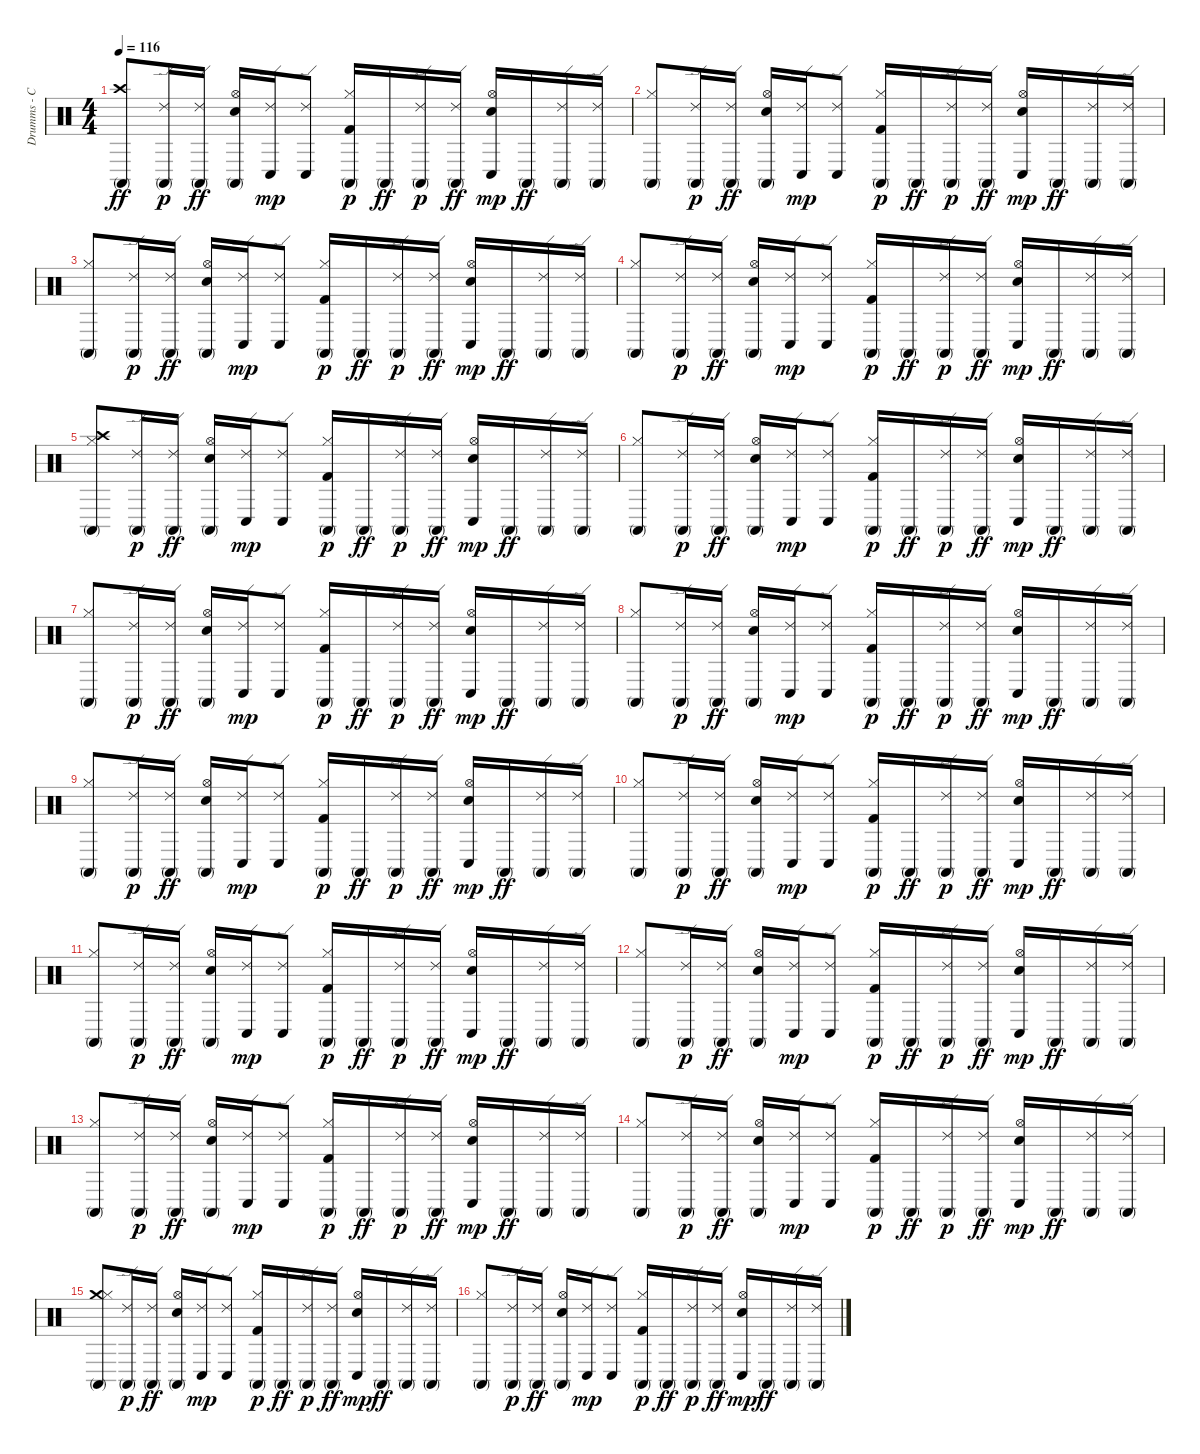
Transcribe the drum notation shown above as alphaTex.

\track ("Drumms - Conga" "Drumms - C") {instrument percussion}
\staff {score}
\articulation defaults
\ts (4 4)
\tempo 116
\clef neutral
\ks c
("Conga high (mute)" "Crash high (hit)").8{dy ff} ("Conga high (mute)" "Ride (edge) 2").16{dy p} ("Conga high (mute)" "Ride (edge) 2").16{dy ff} ("Conga high (mute)" "Snare (hit) 2" "Hi-Hat (open)").16 ("Conga low (hit)" "Ride (edge) 2").16{dy mp} ("Conga low (hit)" "Ride (edge) 2").8 ("Conga high (mute)" "Kick (hit) 2" "Hi-Hat (closed)").16{dy p} "Conga high (mute)".16{dy ff} ("Conga high (mute)" "Ride (edge) 2").16{dy p} ("Conga high (mute)" "Ride (edge) 2").16{dy ff} ("Conga low (hit)" "Snare (hit) 2" "Hi-Hat (open)").16{dy mp} "Conga high (mute)".16{dy ff} ("Conga high (mute)" "Ride (edge) 2").16 ("Conga high (mute)" "Ride (edge) 2").16 |
("Conga high (mute)" "Hi-Hat (closed)").8 ("Conga high (mute)" "Ride (edge) 2").16{dy p} ("Conga high (mute)" "Ride (edge) 2").16{dy ff} ("Conga high (mute)" "Snare (hit) 2" "Hi-Hat (open)").16 ("Conga low (hit)" "Ride (edge) 2").16{dy mp} ("Conga low (hit)" "Ride (edge) 2").8 ("Conga high (mute)" "Kick (hit) 2" "Hi-Hat (closed)").16{dy p} "Conga high (mute)".16{dy ff} ("Conga high (mute)" "Ride (edge) 2").16{dy p} ("Conga high (mute)" "Ride (edge) 2").16{dy ff} ("Conga low (hit)" "Snare (hit) 2" "Hi-Hat (open)").16{dy mp} "Conga high (mute)".16{dy ff} ("Conga high (mute)" "Ride (edge) 2").16 ("Conga high (mute)" "Ride (edge) 2").16 |
("Conga high (mute)" "Hi-Hat (closed)").8 ("Conga high (mute)" "Ride (edge) 2").16{dy p} ("Conga high (mute)" "Ride (edge) 2").16{dy ff} ("Conga high (mute)" "Snare (hit) 2" "Hi-Hat (open)").16 ("Conga low (hit)" "Ride (edge) 2").16{dy mp} ("Conga low (hit)" "Ride (edge) 2").8 ("Conga high (mute)" "Kick (hit) 2" "Hi-Hat (closed)").16{dy p} "Conga high (mute)".16{dy ff} ("Conga high (mute)" "Ride (edge) 2").16{dy p} ("Conga high (mute)" "Ride (edge) 2").16{dy ff} ("Conga low (hit)" "Snare (hit) 2" "Hi-Hat (open)").16{dy mp} "Conga high (mute)".16{dy ff} ("Conga high (mute)" "Ride (edge) 2").16 ("Conga high (mute)" "Ride (edge) 2").16 |
("Conga high (mute)" "Hi-Hat (closed)").8 ("Conga high (mute)" "Ride (edge) 2").16{dy p} ("Conga high (mute)" "Ride (edge) 2").16{dy ff} ("Conga high (mute)" "Snare (hit) 2" "Hi-Hat (open)").16 ("Conga low (hit)" "Ride (edge) 2").16{dy mp} ("Conga low (hit)" "Ride (edge) 2").8 ("Conga high (mute)" "Kick (hit) 2" "Hi-Hat (closed)").16{dy p} "Conga high (mute)".16{dy ff} ("Conga high (mute)" "Ride (edge) 2").16{dy p} ("Conga high (mute)" "Ride (edge) 2").16{dy ff} ("Conga low (hit)" "Snare (hit) 2" "Hi-Hat (open)").16{dy mp} "Conga high (mute)".16{dy ff} ("Conga high (mute)" "Ride (edge) 2").16 ("Conga high (mute)" "Ride (edge) 2").16 |
\section ("" "")
("Conga high (mute)" "Crash high (hit)" "Hi-Hat (closed)").8 ("Conga high (mute)" "Ride (edge) 2").16{dy p} ("Conga high (mute)" "Ride (edge) 2").16{dy ff} ("Conga high (mute)" "Snare (hit) 2" "Hi-Hat (open)").16 ("Conga low (hit)" "Ride (edge) 2").16{dy mp} ("Conga low (hit)" "Ride (edge) 2").8 ("Conga high (mute)" "Kick (hit) 2" "Hi-Hat (closed)").16{dy p} "Conga high (mute)".16{dy ff} ("Conga high (mute)" "Ride (edge) 2").16{dy p} ("Conga high (mute)" "Ride (edge) 2").16{dy ff} ("Conga low (hit)" "Snare (hit) 2" "Hi-Hat (open)").16{dy mp} "Conga high (mute)".16{dy ff} ("Conga high (mute)" "Ride (edge) 2").16 ("Conga high (mute)" "Ride (edge) 2").16 |
("Conga high (mute)" "Hi-Hat (closed)").8 ("Conga high (mute)" "Ride (edge) 2").16{dy p} ("Conga high (mute)" "Ride (edge) 2").16{dy ff} ("Conga high (mute)" "Snare (hit) 2" "Hi-Hat (open)").16 ("Conga low (hit)" "Ride (edge) 2").16{dy mp} ("Conga low (hit)" "Ride (edge) 2").8 ("Conga high (mute)" "Kick (hit) 2" "Hi-Hat (closed)").16{dy p} "Conga high (mute)".16{dy ff} ("Conga high (mute)" "Ride (edge) 2").16{dy p} ("Conga high (mute)" "Ride (edge) 2").16{dy ff} ("Conga low (hit)" "Snare (hit) 2" "Hi-Hat (open)").16{dy mp} "Conga high (mute)".16{dy ff} ("Conga high (mute)" "Ride (edge) 2").16 ("Conga high (mute)" "Ride (edge) 2").16 |
\section ("" "")
("Conga high (mute)" "Hi-Hat (closed)").8 ("Conga high (mute)" "Ride (edge) 2").16{dy p} ("Conga high (mute)" "Ride (edge) 2").16{dy ff} ("Conga high (mute)" "Snare (hit) 2" "Hi-Hat (open)").16 ("Conga low (hit)" "Ride (edge) 2").16{dy mp} ("Conga low (hit)" "Ride (edge) 2").8 ("Conga high (mute)" "Kick (hit) 2" "Hi-Hat (closed)").16{dy p} "Conga high (mute)".16{dy ff} ("Conga high (mute)" "Ride (edge) 2").16{dy p} ("Conga high (mute)" "Ride (edge) 2").16{dy ff} ("Conga low (hit)" "Snare (hit) 2" "Hi-Hat (open)").16{dy mp} "Conga high (mute)".16{dy ff} ("Conga high (mute)" "Ride (edge) 2").16 ("Conga high (mute)" "Ride (edge) 2").16 |
("Conga high (mute)" "Hi-Hat (closed)").8 ("Conga high (mute)" "Ride (edge) 2").16{dy p} ("Conga high (mute)" "Ride (edge) 2").16{dy ff} ("Conga high (mute)" "Snare (hit) 2" "Hi-Hat (open)").16 ("Conga low (hit)" "Ride (edge) 2").16{dy mp} ("Conga low (hit)" "Ride (edge) 2").8 ("Conga high (mute)" "Kick (hit) 2" "Hi-Hat (closed)").16{dy p} "Conga high (mute)".16{dy ff} ("Conga high (mute)" "Ride (edge) 2").16{dy p} ("Conga high (mute)" "Ride (edge) 2").16{dy ff} ("Conga low (hit)" "Snare (hit) 2" "Hi-Hat (open)").16{dy mp} "Conga high (mute)".16{dy ff} ("Conga high (mute)" "Ride (edge) 2").16 ("Conga high (mute)" "Ride (edge) 2").16 |
("Conga high (mute)" "Hi-Hat (closed)").8 ("Conga high (mute)" "Ride (edge) 2").16{dy p} ("Conga high (mute)" "Ride (edge) 2").16{dy ff} ("Conga high (mute)" "Snare (hit) 2" "Hi-Hat (open)").16 ("Conga low (hit)" "Ride (edge) 2").16{dy mp} ("Conga low (hit)" "Ride (edge) 2").8 ("Conga high (mute)" "Kick (hit) 2" "Hi-Hat (closed)").16{dy p} "Conga high (mute)".16{dy ff} ("Conga high (mute)" "Ride (edge) 2").16{dy p} ("Conga high (mute)" "Ride (edge) 2").16{dy ff} ("Conga low (hit)" "Snare (hit) 2" "Hi-Hat (open)").16{dy mp} "Conga high (mute)".16{dy ff} ("Conga high (mute)" "Ride (edge) 2").16 ("Conga high (mute)" "Ride (edge) 2").16 |
("Conga high (mute)" "Hi-Hat (closed)").8 ("Conga high (mute)" "Ride (edge) 2").16{dy p} ("Conga high (mute)" "Ride (edge) 2").16{dy ff} ("Conga high (mute)" "Snare (hit) 2" "Hi-Hat (open)").16 ("Conga low (hit)" "Ride (edge) 2").16{dy mp} ("Conga low (hit)" "Ride (edge) 2").8 ("Conga high (mute)" "Kick (hit) 2" "Hi-Hat (closed)").16{dy p} "Conga high (mute)".16{dy ff} ("Conga high (mute)" "Ride (edge) 2").16{dy p} ("Conga high (mute)" "Ride (edge) 2").16{dy ff} ("Conga low (hit)" "Snare (hit) 2" "Hi-Hat (open)").16{dy mp} "Conga high (mute)".16{dy ff} ("Conga high (mute)" "Ride (edge) 2").16 ("Conga high (mute)" "Ride (edge) 2").16 |
("Conga high (mute)" "Hi-Hat (closed)").8 ("Conga high (mute)" "Ride (edge) 2").16{dy p} ("Conga high (mute)" "Ride (edge) 2").16{dy ff} ("Conga high (mute)" "Snare (hit) 2" "Hi-Hat (open)").16 ("Conga low (hit)" "Ride (edge) 2").16{dy mp} ("Conga low (hit)" "Ride (edge) 2").8 ("Conga high (mute)" "Kick (hit) 2" "Hi-Hat (closed)").16{dy p} "Conga high (mute)".16{dy ff} ("Conga high (mute)" "Ride (edge) 2").16{dy p} ("Conga high (mute)" "Ride (edge) 2").16{dy ff} ("Conga low (hit)" "Snare (hit) 2" "Hi-Hat (open)").16{dy mp} "Conga high (mute)".16{dy ff} ("Conga high (mute)" "Ride (edge) 2").16 ("Conga high (mute)" "Ride (edge) 2").16 |
("Conga high (mute)" "Hi-Hat (closed)").8 ("Conga high (mute)" "Ride (edge) 2").16{dy p} ("Conga high (mute)" "Ride (edge) 2").16{dy ff} ("Conga high (mute)" "Snare (hit) 2" "Hi-Hat (open)").16 ("Conga low (hit)" "Ride (edge) 2").16{dy mp} ("Conga low (hit)" "Ride (edge) 2").8 ("Conga high (mute)" "Kick (hit) 2" "Hi-Hat (closed)").16{dy p} "Conga high (mute)".16{dy ff} ("Conga high (mute)" "Ride (edge) 2").16{dy p} ("Conga high (mute)" "Ride (edge) 2").16{dy ff} ("Conga low (hit)" "Snare (hit) 2" "Hi-Hat (open)").16{dy mp} "Conga high (mute)".16{dy ff} ("Conga high (mute)" "Ride (edge) 2").16 ("Conga high (mute)" "Ride (edge) 2").16 |
("Conga high (mute)" "Hi-Hat (closed)").8 ("Conga high (mute)" "Ride (edge) 2").16{dy p} ("Conga high (mute)" "Ride (edge) 2").16{dy ff} ("Conga high (mute)" "Snare (hit) 2" "Hi-Hat (open)").16 ("Conga low (hit)" "Ride (edge) 2").16{dy mp} ("Conga low (hit)" "Ride (edge) 2").8 ("Conga high (mute)" "Kick (hit) 2" "Hi-Hat (closed)").16{dy p} "Conga high (mute)".16{dy ff} ("Conga high (mute)" "Ride (edge) 2").16{dy p} ("Conga high (mute)" "Ride (edge) 2").16{dy ff} ("Conga low (hit)" "Snare (hit) 2" "Hi-Hat (open)").16{dy mp} "Conga high (mute)".16{dy ff} ("Conga high (mute)" "Ride (edge) 2").16 ("Conga high (mute)" "Ride (edge) 2").16 |
("Conga high (mute)" "Hi-Hat (closed)").8 ("Conga high (mute)" "Ride (edge) 2").16{dy p} ("Conga high (mute)" "Ride (edge) 2").16{dy ff} ("Conga high (mute)" "Snare (hit) 2" "Hi-Hat (open)").16 ("Conga low (hit)" "Ride (edge) 2").16{dy mp} ("Conga low (hit)" "Ride (edge) 2").8 ("Conga high (mute)" "Kick (hit) 2" "Hi-Hat (closed)").16{dy p} "Conga high (mute)".16{dy ff} ("Conga high (mute)" "Ride (edge) 2").16{dy p} ("Conga high (mute)" "Ride (edge) 2").16{dy ff} ("Conga low (hit)" "Snare (hit) 2" "Hi-Hat (open)").16{dy mp} "Conga high (mute)".16{dy ff} ("Conga high (mute)" "Ride (edge) 2").16 ("Conga high (mute)" "Ride (edge) 2").16 |
\section ("" "")
("Conga high (mute)" "Crash medium (hit)" "Hi-Hat (closed)").8 ("Conga high (mute)" "Ride (edge) 2").16{dy p} ("Conga high (mute)" "Ride (edge) 2").16{dy ff} ("Conga high (mute)" "Snare (hit) 2" "Hi-Hat (open)").16 ("Conga low (hit)" "Ride (edge) 2").16{dy mp} ("Conga low (hit)" "Ride (edge) 2").8 ("Conga high (mute)" "Kick (hit) 2" "Hi-Hat (closed)").16{dy p} "Conga high (mute)".16{dy ff} ("Conga high (mute)" "Ride (edge) 2").16{dy p} ("Conga high (mute)" "Ride (edge) 2").16{dy ff} ("Conga low (hit)" "Snare (hit) 2" "Hi-Hat (open)").16{dy mp} "Conga high (mute)".16{dy ff} ("Conga high (mute)" "Ride (edge) 2").16 ("Conga high (mute)" "Ride (edge) 2").16 |
("Conga high (mute)" "Hi-Hat (closed)").8 ("Conga high (mute)" "Ride (edge) 2").16{dy p} ("Conga high (mute)" "Ride (edge) 2").16{dy ff} ("Conga high (mute)" "Snare (hit) 2" "Hi-Hat (open)").16 ("Conga low (hit)" "Ride (edge) 2").16{dy mp} ("Conga low (hit)" "Ride (edge) 2").8 ("Conga high (mute)" "Kick (hit) 2" "Hi-Hat (closed)").16{dy p} "Conga high (mute)".16{dy ff} ("Conga high (mute)" "Ride (edge) 2").16{dy p} ("Conga high (mute)" "Ride (edge) 2").16{dy ff} ("Conga low (hit)" "Snare (hit) 2" "Hi-Hat (open)").16{dy mp} "Conga high (mute)".16{dy ff} ("Conga high (mute)" "Ride (edge) 2").16 ("Conga high (mute)" "Ride (edge) 2").16
